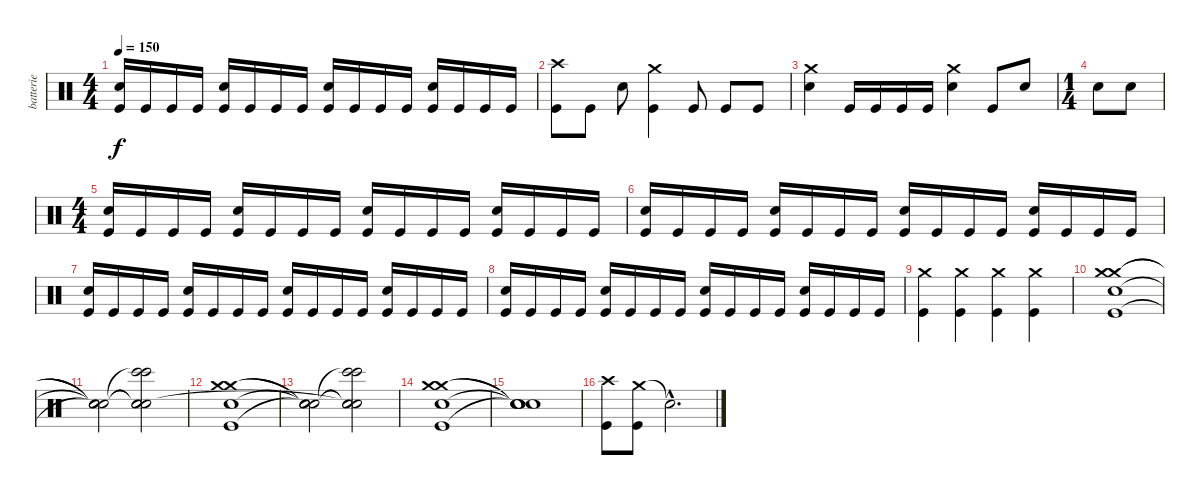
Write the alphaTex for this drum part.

\track ("batterie" "batterie") {instrument percussion}
\staff {score}
\articulation defaults
\ts (4 4)
\tempo 150
\clef neutral
\ks c
("Snare (hit) 2" "Kick (hit)").16{dy f} "Kick (hit)".16 "Kick (hit)".16 "Kick (hit)".16 ("Snare (hit) 2" "Kick (hit)").16 "Kick (hit)".16 "Kick (hit)".16 "Kick (hit)".16 ("Snare (hit) 2" "Kick (hit)").16 "Kick (hit)".16 "Kick (hit)".16 "Kick (hit)".16 ("Snare (hit) 2" "Kick (hit)").16 "Kick (hit)".16 "Kick (hit)".16 "Kick (hit)".16 |
("Crash high (hit)" "Kick (hit)").8 "Kick (hit)".8 "Snare (hit) 2".8 ("Crash medium (hit)" "Kick (hit)").4 "Kick (hit)".8 "Kick (hit)".8 "Kick (hit)".8 |
("Crash medium (hit)" "Snare (hit) 2").4 "Kick (hit)".16 "Kick (hit)".16 "Kick (hit)".16 "Kick (hit)".16 ("Crash medium (hit)" "Snare (hit) 2").4 "Kick (hit)".8 "Snare (hit) 2".8 |
\ts (1 4)
"Snare (hit) 2".8 "Snare (hit) 2".8 |
\ts (4 4)
("Snare (hit) 2" "Kick (hit)").16 "Kick (hit)".16 "Kick (hit)".16 "Kick (hit)".16 ("Snare (hit) 2" "Kick (hit)").16 "Kick (hit)".16 "Kick (hit)".16 "Kick (hit)".16 ("Snare (hit) 2" "Kick (hit)").16 "Kick (hit)".16 "Kick (hit)".16 "Kick (hit)".16 ("Snare (hit) 2" "Kick (hit)").16 "Kick (hit)".16 "Kick (hit)".16 "Kick (hit)".16 |
("Snare (hit) 2" "Kick (hit)").16 "Kick (hit)".16 "Kick (hit)".16 "Kick (hit)".16 ("Snare (hit) 2" "Kick (hit)").16 "Kick (hit)".16 "Kick (hit)".16 "Kick (hit)".16 ("Snare (hit) 2" "Kick (hit)").16 "Kick (hit)".16 "Kick (hit)".16 "Kick (hit)".16 ("Snare (hit) 2" "Kick (hit)").16 "Kick (hit)".16 "Kick (hit)".16 "Kick (hit)".16 |
("Snare (hit) 2" "Kick (hit)").16 "Kick (hit)".16 "Kick (hit)".16 "Kick (hit)".16 ("Snare (hit) 2" "Kick (hit)").16 "Kick (hit)".16 "Kick (hit)".16 "Kick (hit)".16 ("Snare (hit) 2" "Kick (hit)").16 "Kick (hit)".16 "Kick (hit)".16 "Kick (hit)".16 ("Snare (hit) 2" "Kick (hit)").16 "Kick (hit)".16 "Kick (hit)".16 "Kick (hit)".16 |
("Snare (hit) 2" "Kick (hit)").16 "Kick (hit)".16 "Kick (hit)".16 "Kick (hit)".16 ("Snare (hit) 2" "Kick (hit)").16 "Kick (hit)".16 "Kick (hit)".16 "Kick (hit)".16 ("Snare (hit) 2" "Kick (hit)").16 "Kick (hit)".16 "Kick (hit)".16 "Kick (hit)".16 ("Snare (hit) 2" "Kick (hit)").16 "Kick (hit)".16 "Kick (hit)".16 "Kick (hit)".16 |
("Crash medium (hit)" "Kick (hit)").4 ("Crash medium (hit)" "Kick (hit)").4 ("Crash medium (hit)" "Kick (hit)").4 ("Crash medium (hit)" "Kick (hit)").4 |
("Snare (hit) 2" "Crash medium (hit)" "Crash medium (hit)" "Kick (hit)").1 |
("Snare (hit)"{t} "Snare (hit)"{t} "Snare (hit)"{t} "Snare (hit)"{t}).2 ("Bongo High (hit)" "Snare (hit)"{t} "Snare (hit)"{t} "Bongo High (hit)"{t} "Snare (hit)").2 |
("Crash medium (hit)" "Crash medium (hit)" "Snare (hit) 2" "Kick (hit)").1 |
("Snare (hit)"{t} "Snare (hit)"{t} "Snare (hit)"{t} "Snare (hit)"{t}).2 ("Bongo High (hit)" "Snare (hit)"{t} "Snare (hit)"{t} "Bongo High (hit)"{t} "Snare (hit)"{t}).2 |
("Snare (hit) 2" "Crash medium (hit)" "Crash medium (hit)" "Kick (hit)").1 |
("Snare (hit)"{t} "Snare (hit)"{t} "Snare (hit)"{t} "Snare (hit)"{t}).1 |
("Crash high (hit)" "Kick (hit)").8 ("Crash medium (hit)" "Kick (hit)").8 "Snare (hit)"{hac t}.2{d}
